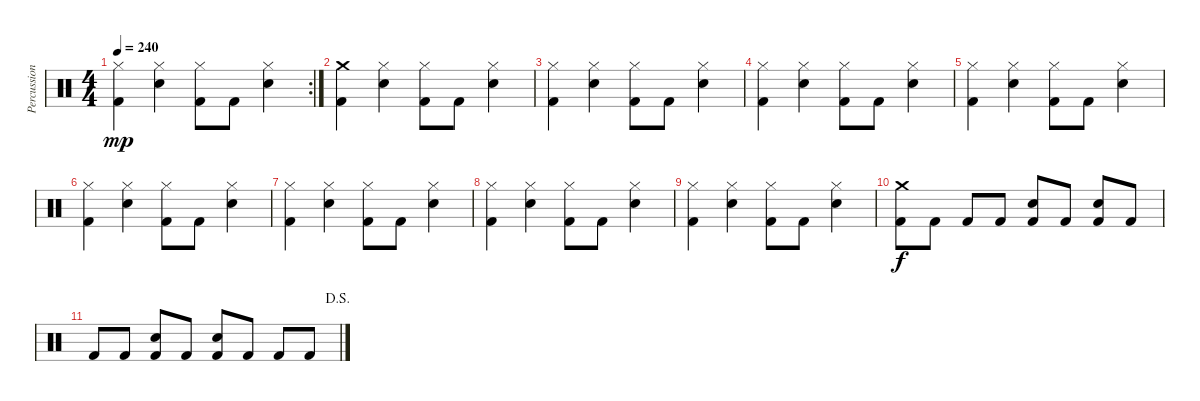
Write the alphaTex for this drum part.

\track ("Percussions" "Percussion") {instrument percussion}
\staff {score}
\articulation defaults
\rc 2
\ts (4 4)
\tempo 240
\clef neutral
\ks c
("Hi-Hat (closed)" "Kick (hit) 2").4{dy mp} ("Hi-Hat (closed)" "Electric Snare (hit)").4 ("Hi-Hat (closed)" "Kick (hit) 2").8 "Kick (hit) 2".8 ("Hi-Hat (closed)" "Electric Snare (hit)").4 |
("Crash medium (hit)" "Kick (hit) 2").4 ("Hi-Hat (closed)" "Electric Snare (hit)").4 ("Hi-Hat (closed)" "Kick (hit) 2").8 "Kick (hit) 2".8 ("Hi-Hat (closed)" "Electric Snare (hit)").4 |
("Hi-Hat (closed)" "Kick (hit) 2").4 ("Hi-Hat (closed)" "Electric Snare (hit)").4 ("Hi-Hat (closed)" "Kick (hit) 2").8 "Kick (hit) 2".8 ("Hi-Hat (closed)" "Electric Snare (hit)").4 |
("Hi-Hat (closed)" "Kick (hit) 2").4 ("Hi-Hat (closed)" "Electric Snare (hit)").4 ("Hi-Hat (closed)" "Kick (hit) 2").8 "Kick (hit) 2".8 ("Hi-Hat (closed)" "Electric Snare (hit)").4 |
("Hi-Hat (closed)" "Kick (hit) 2").4 ("Hi-Hat (closed)" "Electric Snare (hit)").4 ("Hi-Hat (closed)" "Kick (hit) 2").8 "Kick (hit) 2".8 ("Hi-Hat (closed)" "Electric Snare (hit)").4 |
("Hi-Hat (closed)" "Kick (hit) 2").4 ("Hi-Hat (closed)" "Electric Snare (hit)").4 ("Hi-Hat (closed)" "Kick (hit) 2").8 "Kick (hit) 2".8 ("Hi-Hat (closed)" "Electric Snare (hit)").4 |
("Hi-Hat (closed)" "Kick (hit) 2").4 ("Hi-Hat (closed)" "Electric Snare (hit)").4 ("Hi-Hat (closed)" "Kick (hit) 2").8 "Kick (hit) 2".8 ("Hi-Hat (closed)" "Electric Snare (hit)").4 |
("Hi-Hat (closed)" "Kick (hit) 2").4 ("Hi-Hat (closed)" "Electric Snare (hit)").4 ("Hi-Hat (closed)" "Kick (hit) 2").8 "Kick (hit) 2".8 ("Hi-Hat (closed)" "Electric Snare (hit)").4 |
("Hi-Hat (closed)" "Kick (hit) 2").4 ("Hi-Hat (closed)" "Electric Snare (hit)").4 ("Hi-Hat (closed)" "Kick (hit) 2").8 "Kick (hit) 2".8 ("Hi-Hat (closed)" "Electric Snare (hit)").4 |
("Crash medium (hit)" "Kick (hit) 2").8{dy f} "Kick (hit) 2".8 "Kick (hit) 2".8 "Kick (hit) 2".8 ("Electric Snare (hit)" "Kick (hit) 2").8 "Kick (hit) 2".8 ("Electric Snare (hit)" "Kick (hit) 2").8 "Kick (hit) 2".8 |
\jump dalsegno "Kick (hit) 2".8 "Kick (hit) 2".8
("Electric Snare (hit)" "Kick (hit) 2").8 "Kick (hit) 2".8 ("Electric Snare (hit)" "Kick (hit) 2").8 "Kick (hit) 2".8 "Kick (hit) 2".8 "Kick (hit) 2".8
